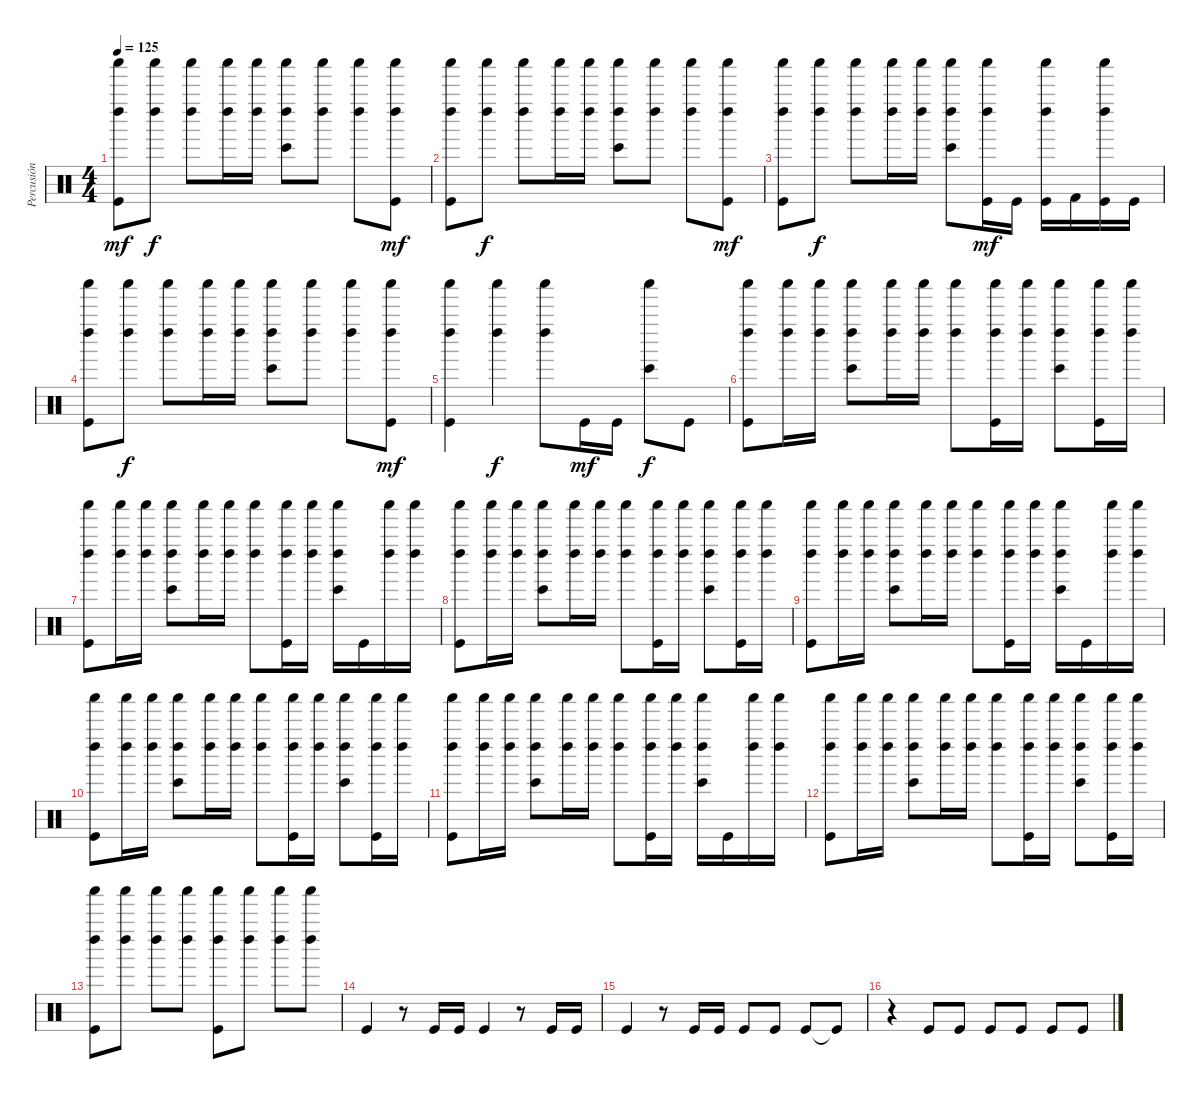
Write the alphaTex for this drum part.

\track ("Percusión" "Percusión") {instrument percussion}
\staff {score}
\articulation defaults
\ts (4 4)
\tempo 125
\clef neutral
\ks c
("Shaker (hit)" "Left Maraca (hit)" "Kick (hit)").8{dy mf} ("Shaker (hit)" "Left Maraca (hit)").8{dy f} ("Shaker (hit)" "Left Maraca (hit)").8 ("Shaker (hit)" "Left Maraca (hit)").16 ("Shaker (hit)" "Left Maraca (hit)").16 ("Shaker (hit)" "Left Maraca (hit)" "Bongo High (hit)").8 ("Shaker (hit)" "Left Maraca (hit)").8 ("Shaker (hit)" "Left Maraca (hit)").8 ("Shaker (hit)" "Left Maraca (hit)" "Kick (hit)").8{dy mf} |
("Shaker (hit)" "Left Maraca (hit)" "Kick (hit)").8 ("Shaker (hit)" "Left Maraca (hit)").8{dy f} ("Shaker (hit)" "Left Maraca (hit)").8 ("Shaker (hit)" "Left Maraca (hit)").16 ("Shaker (hit)" "Left Maraca (hit)").16 ("Shaker (hit)" "Left Maraca (hit)" "Bongo High (hit)").8 ("Shaker (hit)" "Left Maraca (hit)").8 ("Shaker (hit)" "Left Maraca (hit)").8 ("Shaker (hit)" "Left Maraca (hit)" "Kick (hit)").8{dy mf} |
("Shaker (hit)" "Left Maraca (hit)" "Kick (hit)").8 ("Shaker (hit)" "Left Maraca (hit)").8{dy f} ("Shaker (hit)" "Left Maraca (hit)").8 ("Shaker (hit)" "Left Maraca (hit)").16 ("Shaker (hit)" "Left Maraca (hit)").16 ("Shaker (hit)" "Left Maraca (hit)" "Bongo High (hit)").8 ("Shaker (hit)" "Left Maraca (hit)" "Kick (hit)").16{dy mf} "Kick (hit)".16 ("Shaker (hit)" "Left Maraca (hit)" "Kick (hit)").16 "Kick (hit) 2".16 ("Shaker (hit)" "Left Maraca (hit)" "Kick (hit)").16 "Kick (hit)".16 |
("Shaker (hit)" "Left Maraca (hit)" "Kick (hit)").8 ("Shaker (hit)" "Left Maraca (hit)").8{dy f} ("Shaker (hit)" "Left Maraca (hit)").8 ("Shaker (hit)" "Left Maraca (hit)").16 ("Shaker (hit)" "Left Maraca (hit)").16 ("Shaker (hit)" "Left Maraca (hit)" "Bongo High (hit)").8 ("Shaker (hit)" "Left Maraca (hit)").8 ("Shaker (hit)" "Left Maraca (hit)").8 ("Shaker (hit)" "Left Maraca (hit)" "Kick (hit)").8{dy mf} |
("Shaker (hit)" "Left Maraca (hit)" "Kick (hit)").4 ("Shaker (hit)" "Left Maraca (hit)").4{dy f} ("Shaker (hit)" "Left Maraca (hit)").8 "Kick (hit)".16{dy mf} "Kick (hit)".16 ("Shaker (hit)" "Bongo High (hit)").8{dy f} "Kick (hit)".8 |
("Shaker (hit)" "Left Maraca (hit)" "Kick (hit)").8 ("Shaker (hit)" "Left Maraca (hit)").16 ("Shaker (hit)" "Left Maraca (hit)").16 ("Shaker (hit)" "Left Maraca (hit)" "Bongo High (hit)").8 ("Shaker (hit)" "Left Maraca (hit)").16 ("Shaker (hit)" "Left Maraca (hit)").16 ("Shaker (hit)" "Left Maraca (hit)").8 ("Shaker (hit)" "Left Maraca (hit)" "Kick (hit)").16 ("Shaker (hit)" "Left Maraca (hit)").16 ("Shaker (hit)" "Left Maraca (hit)" "Bongo High (hit)").8 ("Shaker (hit)" "Left Maraca (hit)" "Kick (hit)").16 ("Shaker (hit)" "Left Maraca (hit)").16 |
("Shaker (hit)" "Left Maraca (hit)" "Kick (hit)").8 ("Shaker (hit)" "Left Maraca (hit)").16 ("Shaker (hit)" "Left Maraca (hit)").16 ("Shaker (hit)" "Left Maraca (hit)" "Bongo High (hit)").8 ("Shaker (hit)" "Left Maraca (hit)").16 ("Shaker (hit)" "Left Maraca (hit)").16 ("Shaker (hit)" "Left Maraca (hit)").8 ("Shaker (hit)" "Left Maraca (hit)" "Kick (hit)").16 ("Shaker (hit)" "Left Maraca (hit)").16 ("Shaker (hit)" "Left Maraca (hit)" "Bongo High (hit)").16 "Kick (hit)".16 ("Shaker (hit)" "Left Maraca (hit)").16 ("Shaker (hit)" "Left Maraca (hit)").16 |
("Shaker (hit)" "Left Maraca (hit)" "Kick (hit)").8 ("Shaker (hit)" "Left Maraca (hit)").16 ("Shaker (hit)" "Left Maraca (hit)").16 ("Shaker (hit)" "Left Maraca (hit)" "Bongo High (hit)").8 ("Shaker (hit)" "Left Maraca (hit)").16 ("Shaker (hit)" "Left Maraca (hit)").16 ("Shaker (hit)" "Left Maraca (hit)").8 ("Shaker (hit)" "Left Maraca (hit)" "Kick (hit)").16 ("Shaker (hit)" "Left Maraca (hit)").16 ("Shaker (hit)" "Left Maraca (hit)" "Bongo High (hit)").8 ("Shaker (hit)" "Left Maraca (hit)" "Kick (hit)").16 ("Shaker (hit)" "Left Maraca (hit)").16 |
("Shaker (hit)" "Left Maraca (hit)" "Kick (hit)").8 ("Shaker (hit)" "Left Maraca (hit)").16 ("Shaker (hit)" "Left Maraca (hit)").16 ("Shaker (hit)" "Left Maraca (hit)" "Bongo High (hit)").8 ("Shaker (hit)" "Left Maraca (hit)").16 ("Shaker (hit)" "Left Maraca (hit)").16 ("Shaker (hit)" "Left Maraca (hit)").8 ("Shaker (hit)" "Left Maraca (hit)" "Kick (hit)").16 ("Shaker (hit)" "Left Maraca (hit)").16 ("Shaker (hit)" "Left Maraca (hit)" "Bongo High (hit)").16 "Kick (hit)".16 ("Shaker (hit)" "Left Maraca (hit)").16 ("Shaker (hit)" "Left Maraca (hit)").16 |
("Shaker (hit)" "Left Maraca (hit)" "Kick (hit)").8 ("Shaker (hit)" "Left Maraca (hit)").16 ("Shaker (hit)" "Left Maraca (hit)").16 ("Shaker (hit)" "Left Maraca (hit)" "Bongo High (hit)").8 ("Shaker (hit)" "Left Maraca (hit)").16 ("Shaker (hit)" "Left Maraca (hit)").16 ("Shaker (hit)" "Left Maraca (hit)").8 ("Shaker (hit)" "Left Maraca (hit)" "Kick (hit)").16 ("Shaker (hit)" "Left Maraca (hit)").16 ("Shaker (hit)" "Left Maraca (hit)" "Bongo High (hit)").8 ("Shaker (hit)" "Left Maraca (hit)" "Kick (hit)").16 ("Shaker (hit)" "Left Maraca (hit)").16 |
("Shaker (hit)" "Left Maraca (hit)" "Kick (hit)").8 ("Shaker (hit)" "Left Maraca (hit)").16 ("Shaker (hit)" "Left Maraca (hit)").16 ("Shaker (hit)" "Left Maraca (hit)" "Bongo High (hit)").8 ("Shaker (hit)" "Left Maraca (hit)").16 ("Shaker (hit)" "Left Maraca (hit)").16 ("Shaker (hit)" "Left Maraca (hit)").8 ("Shaker (hit)" "Left Maraca (hit)" "Kick (hit)").16 ("Shaker (hit)" "Left Maraca (hit)").16 ("Shaker (hit)" "Left Maraca (hit)" "Bongo High (hit)").16 "Kick (hit)".16 ("Shaker (hit)" "Left Maraca (hit)").16 ("Shaker (hit)" "Left Maraca (hit)").16 |
("Shaker (hit)" "Left Maraca (hit)" "Kick (hit)").8 ("Shaker (hit)" "Left Maraca (hit)").16 ("Shaker (hit)" "Left Maraca (hit)").16 ("Shaker (hit)" "Left Maraca (hit)" "Bongo High (hit)").8 ("Shaker (hit)" "Left Maraca (hit)").16 ("Shaker (hit)" "Left Maraca (hit)").16 ("Shaker (hit)" "Left Maraca (hit)").8 ("Shaker (hit)" "Left Maraca (hit)" "Kick (hit)").16 ("Shaker (hit)" "Left Maraca (hit)").16 ("Shaker (hit)" "Left Maraca (hit)" "Bongo High (hit)").8 ("Shaker (hit)" "Left Maraca (hit)" "Kick (hit)").16 ("Shaker (hit)" "Left Maraca (hit)").16 |
("Shaker (hit)" "Left Maraca (hit)" "Kick (hit)").8 ("Shaker (hit)" "Left Maraca (hit)").8 ("Shaker (hit)" "Left Maraca (hit)").8 ("Shaker (hit)" "Left Maraca (hit)").8 ("Shaker (hit)" "Left Maraca (hit)" "Kick (hit)").8 ("Shaker (hit)" "Left Maraca (hit)").8 ("Shaker (hit)" "Left Maraca (hit)").8 ("Shaker (hit)" "Left Maraca (hit)").8 |
"Kick (hit)".4 r.8 "Kick (hit)".16 "Kick (hit)".16 "Kick (hit)".4 r.8 "Kick (hit)".16 "Kick (hit)".16 |
"Kick (hit)".4 r.8 "Kick (hit)".16 "Kick (hit)".16 "Kick (hit)".8 "Kick (hit)".8 "Kick (hit)".8 "Kick (hit)"{t}.8 |
r.4 "Kick (hit)".8 "Kick (hit)".8 "Kick (hit)".8 "Kick (hit)".8 "Kick (hit)".8 "Kick (hit)".8
